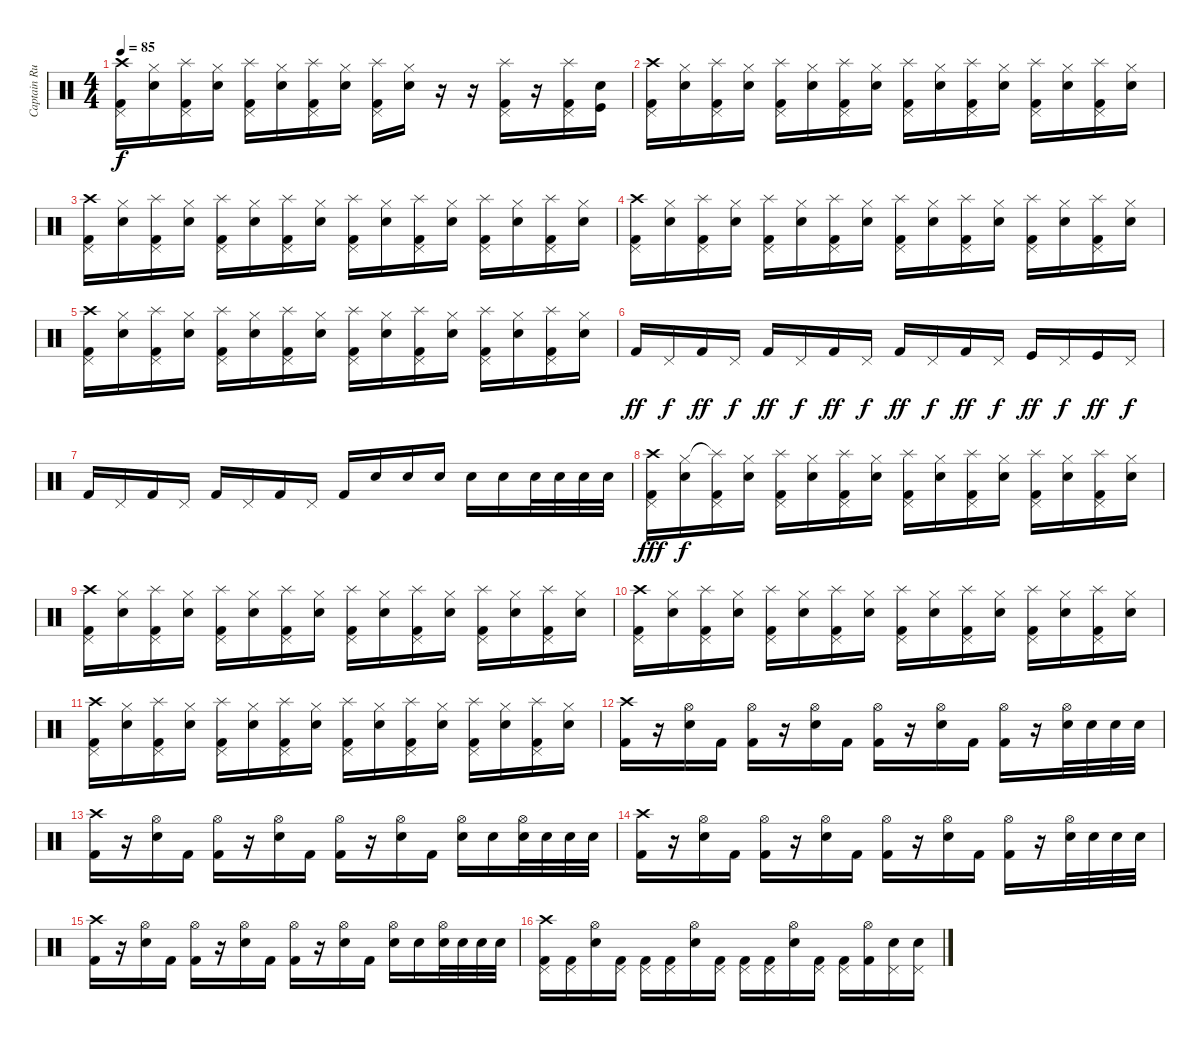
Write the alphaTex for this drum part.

\track ("Captain Rudabar/Rob Dog" "Captain Ru") {instrument percussion}
\staff {score}
\articulation defaults
\ts (4 4)
\tempo 85
\clef neutral
\ks c
("Crash high (hit)" "Pedal Hi-Hat (hit)" "Kick (hit) 2").16{dy f} ("Hi-Hat (closed)" "Electric Snare (hit)").16 ("Splash (hit)" "Pedal Hi-Hat (hit)" "Kick (hit) 2").16 ("Hi-Hat (closed)" "Electric Snare (hit)").16 ("Splash (hit)" "Pedal Hi-Hat (hit)" "Kick (hit) 2").16 ("Hi-Hat (closed)" "Electric Snare (hit)").16 ("Splash (hit)" "Pedal Hi-Hat (hit)" "Kick (hit) 2").16 ("Hi-Hat (closed)" "Electric Snare (hit)").16 ("Splash (hit)" "Pedal Hi-Hat (hit)" "Kick (hit) 2").16 ("Hi-Hat (closed)" "Electric Snare (hit)").16 r.16 r.16 ("Splash (hit)" "Pedal Hi-Hat (hit)" "Kick (hit) 2").16 r.16 ("Splash (hit)" "Pedal Hi-Hat (hit)" "Kick (hit) 2").16 ("Electric Snare (hit)" "Kick (hit)").16 |
("Crash high (hit)" "Pedal Hi-Hat (hit)" "Kick (hit) 2").16 ("Hi-Hat (closed)" "Electric Snare (hit)").16 ("Splash (hit)" "Pedal Hi-Hat (hit)" "Kick (hit) 2").16 ("Hi-Hat (closed)" "Electric Snare (hit)").16 ("Splash (hit)" "Pedal Hi-Hat (hit)" "Kick (hit) 2").16 ("Hi-Hat (closed)" "Electric Snare (hit)").16 ("Splash (hit)" "Pedal Hi-Hat (hit)" "Kick (hit) 2").16 ("Hi-Hat (closed)" "Electric Snare (hit)").16 ("Splash (hit)" "Pedal Hi-Hat (hit)" "Kick (hit) 2").16 ("Hi-Hat (closed)" "Electric Snare (hit)").16 ("Splash (hit)" "Pedal Hi-Hat (hit)" "Kick (hit) 2").16 ("Hi-Hat (closed)" "Electric Snare (hit)").16 ("Splash (hit)" "Pedal Hi-Hat (hit)" "Kick (hit) 2").16 ("Hi-Hat (closed)" "Electric Snare (hit)").16 ("Splash (hit)" "Pedal Hi-Hat (hit)" "Kick (hit) 2").16 ("Hi-Hat (closed)" "Electric Snare (hit)").16 |
("Crash high (hit)" "Pedal Hi-Hat (hit)" "Kick (hit) 2").16 ("Hi-Hat (closed)" "Electric Snare (hit)").16 ("Splash (hit)" "Pedal Hi-Hat (hit)" "Kick (hit) 2").16 ("Hi-Hat (closed)" "Electric Snare (hit)").16 ("Splash (hit)" "Pedal Hi-Hat (hit)" "Kick (hit) 2").16 ("Hi-Hat (closed)" "Electric Snare (hit)").16 ("Splash (hit)" "Pedal Hi-Hat (hit)" "Kick (hit) 2").16 ("Hi-Hat (closed)" "Electric Snare (hit)").16 ("Splash (hit)" "Pedal Hi-Hat (hit)" "Kick (hit) 2").16 ("Hi-Hat (closed)" "Electric Snare (hit)").16 ("Splash (hit)" "Pedal Hi-Hat (hit)" "Kick (hit) 2").16 ("Hi-Hat (closed)" "Electric Snare (hit)").16 ("Splash (hit)" "Pedal Hi-Hat (hit)" "Kick (hit) 2").16 ("Hi-Hat (closed)" "Electric Snare (hit)").16 ("Splash (hit)" "Pedal Hi-Hat (hit)" "Kick (hit) 2").16 ("Hi-Hat (closed)" "Electric Snare (hit)").16 |
("Crash high (hit)" "Pedal Hi-Hat (hit)" "Kick (hit) 2").16 ("Hi-Hat (closed)" "Electric Snare (hit)").16 ("Splash (hit)" "Pedal Hi-Hat (hit)" "Kick (hit) 2").16 ("Hi-Hat (closed)" "Electric Snare (hit)").16 ("Splash (hit)" "Pedal Hi-Hat (hit)" "Kick (hit) 2").16 ("Hi-Hat (closed)" "Electric Snare (hit)").16 ("Splash (hit)" "Pedal Hi-Hat (hit)" "Kick (hit) 2").16 ("Hi-Hat (closed)" "Electric Snare (hit)").16 ("Splash (hit)" "Pedal Hi-Hat (hit)" "Kick (hit) 2").16 ("Hi-Hat (closed)" "Electric Snare (hit)").16 ("Splash (hit)" "Pedal Hi-Hat (hit)" "Kick (hit) 2").16 ("Hi-Hat (closed)" "Electric Snare (hit)").16 ("Splash (hit)" "Pedal Hi-Hat (hit)" "Kick (hit) 2").16 ("Hi-Hat (closed)" "Electric Snare (hit)").16 ("Splash (hit)" "Pedal Hi-Hat (hit)" "Kick (hit) 2").16 ("Hi-Hat (closed)" "Electric Snare (hit)").16 |
("Crash high (hit)" "Pedal Hi-Hat (hit)" "Kick (hit) 2").16 ("Hi-Hat (closed)" "Electric Snare (hit)").16 ("Splash (hit)" "Pedal Hi-Hat (hit)" "Kick (hit) 2").16 ("Hi-Hat (closed)" "Electric Snare (hit)").16 ("Splash (hit)" "Pedal Hi-Hat (hit)" "Kick (hit) 2").16 ("Hi-Hat (closed)" "Electric Snare (hit)").16 ("Splash (hit)" "Pedal Hi-Hat (hit)" "Kick (hit) 2").16 ("Hi-Hat (closed)" "Electric Snare (hit)").16 ("Splash (hit)" "Pedal Hi-Hat (hit)" "Kick (hit) 2").16 ("Hi-Hat (closed)" "Electric Snare (hit)").16 ("Splash (hit)" "Pedal Hi-Hat (hit)" "Kick (hit) 2").16 ("Hi-Hat (closed)" "Electric Snare (hit)").16 ("Splash (hit)" "Pedal Hi-Hat (hit)" "Kick (hit) 2").16 ("Hi-Hat (closed)" "Electric Snare (hit)").16 ("Splash (hit)" "Pedal Hi-Hat (hit)" "Kick (hit) 2").16 ("Hi-Hat (closed)" "Electric Snare (hit)").16 |
"Kick (hit) 2".16{dy ff} "Pedal Hi-Hat (hit)".16{dy f} "Kick (hit) 2".16{dy ff} "Pedal Hi-Hat (hit)".16{dy f} "Kick (hit) 2".16{dy ff} "Pedal Hi-Hat (hit)".16{dy f} "Kick (hit) 2".16{dy ff} "Pedal Hi-Hat (hit)".16{dy f} "Kick (hit) 2".16{dy ff} "Pedal Hi-Hat (hit)".16{dy f} "Kick (hit) 2".16{dy ff} "Pedal Hi-Hat (hit)".16{dy f} "Kick (hit)".16{dy ff} "Pedal Hi-Hat (hit)".16{dy f} "Kick (hit)".16{dy ff} "Pedal Hi-Hat (hit)".16{dy f} |
"Kick (hit) 2".16 "Pedal Hi-Hat (hit)".16 "Kick (hit) 2".16 "Pedal Hi-Hat (hit)".16 "Kick (hit) 2".16 "Pedal Hi-Hat (hit)".16 "Kick (hit) 2".16 "Pedal Hi-Hat (hit)".16 "Kick (hit) 2".16 "Electric Snare (hit)".16 "Electric Snare (hit)".16 "Electric Snare (hit)".16 "Electric Snare (hit)".16 "Electric Snare (hit)".16 "Electric Snare (hit)".32 "Electric Snare (hit)".32 "Electric Snare (hit)".32 "Electric Snare (hit)".32 |
("Crash high (hit)" "Pedal Hi-Hat (hit)" "Kick (hit) 2").16{dy fff} ("Hi-Hat (closed)" "Electric Snare (hit)").16{dy f} ("Splash (hit)"{t} "Pedal Hi-Hat (hit)" "Kick (hit) 2").16 ("Hi-Hat (closed)" "Electric Snare (hit)").16 ("Splash (hit)" "Pedal Hi-Hat (hit)" "Kick (hit) 2").16 ("Hi-Hat (closed)" "Electric Snare (hit)").16 ("Splash (hit)" "Pedal Hi-Hat (hit)" "Kick (hit) 2").16 ("Hi-Hat (closed)" "Electric Snare (hit)").16 ("Splash (hit)" "Pedal Hi-Hat (hit)" "Kick (hit) 2").16 ("Hi-Hat (closed)" "Electric Snare (hit)").16 ("Splash (hit)" "Pedal Hi-Hat (hit)" "Kick (hit) 2").16 ("Hi-Hat (closed)" "Electric Snare (hit)").16 ("Splash (hit)" "Pedal Hi-Hat (hit)" "Kick (hit) 2").16 ("Hi-Hat (closed)" "Electric Snare (hit)").16 ("Splash (hit)" "Pedal Hi-Hat (hit)" "Kick (hit) 2").16 ("Hi-Hat (closed)" "Electric Snare (hit)").16 |
("Crash high (hit)" "Pedal Hi-Hat (hit)" "Kick (hit) 2").16 ("Hi-Hat (closed)" "Electric Snare (hit)").16 ("Splash (hit)" "Pedal Hi-Hat (hit)" "Kick (hit) 2").16 ("Hi-Hat (closed)" "Electric Snare (hit)").16 ("Splash (hit)" "Pedal Hi-Hat (hit)" "Kick (hit) 2").16 ("Hi-Hat (closed)" "Electric Snare (hit)").16 ("Splash (hit)" "Pedal Hi-Hat (hit)" "Kick (hit) 2").16 ("Hi-Hat (closed)" "Electric Snare (hit)").16 ("Splash (hit)" "Pedal Hi-Hat (hit)" "Kick (hit) 2").16 ("Hi-Hat (closed)" "Electric Snare (hit)").16 ("Splash (hit)" "Pedal Hi-Hat (hit)" "Kick (hit) 2").16 ("Hi-Hat (closed)" "Electric Snare (hit)").16 ("Splash (hit)" "Pedal Hi-Hat (hit)" "Kick (hit) 2").16 ("Hi-Hat (closed)" "Electric Snare (hit)").16 ("Splash (hit)" "Pedal Hi-Hat (hit)" "Kick (hit) 2").16 ("Hi-Hat (closed)" "Electric Snare (hit)").16 |
("Crash high (hit)" "Pedal Hi-Hat (hit)" "Kick (hit) 2").16 ("Hi-Hat (closed)" "Electric Snare (hit)").16 ("Splash (hit)" "Pedal Hi-Hat (hit)" "Kick (hit) 2").16 ("Hi-Hat (closed)" "Electric Snare (hit)").16 ("Splash (hit)" "Pedal Hi-Hat (hit)" "Kick (hit) 2").16 ("Hi-Hat (closed)" "Electric Snare (hit)").16 ("Splash (hit)" "Pedal Hi-Hat (hit)" "Kick (hit) 2").16 ("Hi-Hat (closed)" "Electric Snare (hit)").16 ("Splash (hit)" "Pedal Hi-Hat (hit)" "Kick (hit) 2").16 ("Hi-Hat (closed)" "Electric Snare (hit)").16 ("Splash (hit)" "Pedal Hi-Hat (hit)" "Kick (hit) 2").16 ("Hi-Hat (closed)" "Electric Snare (hit)").16 ("Splash (hit)" "Pedal Hi-Hat (hit)" "Kick (hit) 2").16 ("Hi-Hat (closed)" "Electric Snare (hit)").16 ("Splash (hit)" "Pedal Hi-Hat (hit)" "Kick (hit) 2").16 ("Hi-Hat (closed)" "Electric Snare (hit)").16 |
("Crash high (hit)" "Pedal Hi-Hat (hit)" "Kick (hit) 2").16 ("Hi-Hat (closed)" "Electric Snare (hit)").16 ("Splash (hit)" "Pedal Hi-Hat (hit)" "Kick (hit) 2").16 ("Hi-Hat (closed)" "Electric Snare (hit)").16 ("Splash (hit)" "Pedal Hi-Hat (hit)" "Kick (hit) 2").16 ("Hi-Hat (closed)" "Electric Snare (hit)").16 ("Splash (hit)" "Pedal Hi-Hat (hit)" "Kick (hit) 2").16 ("Hi-Hat (closed)" "Electric Snare (hit)").16 ("Splash (hit)" "Pedal Hi-Hat (hit)" "Kick (hit) 2").16 ("Hi-Hat (closed)" "Electric Snare (hit)").16 ("Splash (hit)" "Pedal Hi-Hat (hit)" "Kick (hit) 2").16 ("Hi-Hat (closed)" "Electric Snare (hit)").16 ("Splash (hit)" "Pedal Hi-Hat (hit)" "Kick (hit) 2").16 ("Hi-Hat (closed)" "Electric Snare (hit)").16 ("Splash (hit)" "Pedal Hi-Hat (hit)" "Kick (hit) 2").16 ("Hi-Hat (closed)" "Electric Snare (hit)").16 |
("Crash high (hit)" "Kick (hit) 2").16 r.16 ("Hi-Hat (open)" "Electric Snare (hit)").16 "Kick (hit) 2".16 ("Hi-Hat (open)" "Kick (hit) 2").16 r.16 ("Hi-Hat (open)" "Electric Snare (hit)").16 "Kick (hit) 2".16 ("Hi-Hat (open)" "Kick (hit) 2").16 r.16 ("Hi-Hat (open)" "Electric Snare (hit)").16 "Kick (hit) 2".16 ("Hi-Hat (open)" "Kick (hit) 2").16 r.16 ("Hi-Hat (open)" "Electric Snare (hit)").32 "Electric Snare (hit)".32 "Electric Snare (hit)".32 "Electric Snare (hit)".32 |
("Crash high (hit)" "Kick (hit) 2").16 r.16 ("Hi-Hat (open)" "Electric Snare (hit)").16 "Kick (hit) 2".16 ("Hi-Hat (open)" "Kick (hit) 2").16 r.16 ("Hi-Hat (open)" "Electric Snare (hit)").16 "Kick (hit) 2".16 ("Hi-Hat (open)" "Kick (hit) 2").16 r.16 ("Hi-Hat (open)" "Electric Snare (hit)").16 "Kick (hit) 2".16 ("Hi-Hat (open)" "Electric Snare (hit)").16 "Electric Snare (hit)".16 ("Hi-Hat (open)" "Electric Snare (hit)").32 "Electric Snare (hit)".32 "Electric Snare (hit)".32 "Electric Snare (hit)".32 |
("Crash high (hit)" "Kick (hit) 2").16 r.16 ("Hi-Hat (open)" "Electric Snare (hit)").16 "Kick (hit) 2".16 ("Hi-Hat (open)" "Kick (hit) 2").16 r.16 ("Hi-Hat (open)" "Electric Snare (hit)").16 "Kick (hit) 2".16 ("Hi-Hat (open)" "Kick (hit) 2").16 r.16 ("Hi-Hat (open)" "Electric Snare (hit)").16 "Kick (hit) 2".16 ("Hi-Hat (open)" "Kick (hit) 2").16 r.16 ("Hi-Hat (open)" "Electric Snare (hit)").32 "Electric Snare (hit)".32 "Electric Snare (hit)".32 "Electric Snare (hit)".32 |
("Crash high (hit)" "Kick (hit) 2").16 r.16 ("Hi-Hat (open)" "Electric Snare (hit)").16 "Kick (hit) 2".16 ("Hi-Hat (open)" "Kick (hit) 2").16 r.16 ("Hi-Hat (open)" "Electric Snare (hit)").16 "Kick (hit) 2".16 ("Hi-Hat (open)" "Kick (hit) 2").16 r.16 ("Hi-Hat (open)" "Electric Snare (hit)").16 "Kick (hit) 2".16 ("Hi-Hat (open)" "Electric Snare (hit)").16 "Electric Snare (hit)".16 ("Hi-Hat (open)" "Electric Snare (hit)").32 "Electric Snare (hit)".32 "Electric Snare (hit)".32 "Electric Snare (hit)".32 |
("Crash high (hit)" "Pedal Hi-Hat (hit)" "Kick (hit) 2").16 ("Pedal Hi-Hat (hit)" "Kick (hit) 2").16 ("Hi-Hat (open)" "Electric Snare (hit)").16 ("Pedal Hi-Hat (hit)" "Kick (hit) 2").16 ("Pedal Hi-Hat (hit)" "Kick (hit) 2").16 ("Pedal Hi-Hat (hit)" "Kick (hit) 2").16 ("Hi-Hat (open)" "Electric Snare (hit)").16 ("Pedal Hi-Hat (hit)" "Kick (hit) 2").16 ("Pedal Hi-Hat (hit)" "Kick (hit) 2").16 ("Pedal Hi-Hat (hit)" "Kick (hit) 2").16 ("Hi-Hat (open)" "Electric Snare (hit)").16 ("Pedal Hi-Hat (hit)" "Kick (hit) 2").16 ("Pedal Hi-Hat (hit)" "Kick (hit) 2").16 ("Hi-Hat (open)" "Kick (hit) 2").16 ("Pedal Hi-Hat (hit)" "Electric Snare (hit)").16 ("Pedal Hi-Hat (hit)" "Electric Snare (hit)").16
